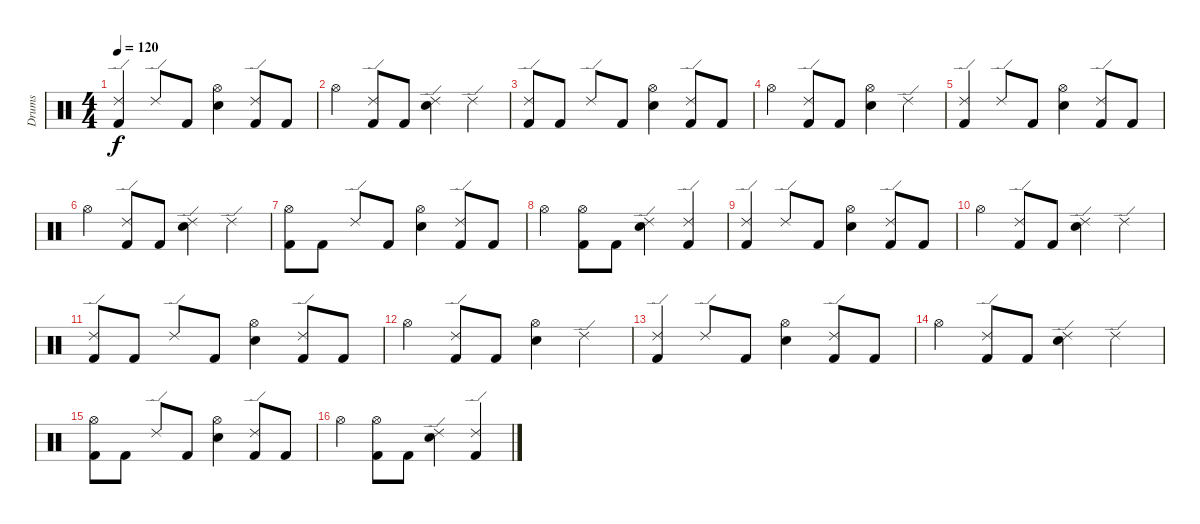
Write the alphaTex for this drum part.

\track ("Drums" "Drums") {instrument percussion}
\staff {score}
\articulation defaults
\ts (4 4)
\tempo 120
\clef neutral
\ks c
("Ride (edge) 2" "Kick (hit) 2").4{dy f} "Ride (edge) 2".8 "Kick (hit) 2".8 ("Hi-Hat (open)" "Snare (hit) 2").4 ("Ride (edge) 2" "Kick (hit) 2").8 "Kick (hit) 2".8 |
"Hi-Hat (open)".4 ("Ride (edge) 2" "Kick (hit) 2").8 "Kick (hit) 2".8 ("Ride (edge) 2" "Snare (hit) 2").4 "Ride (edge) 2".4 |
("Ride (edge) 2" "Kick (hit) 2").8 "Kick (hit) 2".8 "Ride (edge) 2".8 "Kick (hit) 2".8 ("Hi-Hat (open)" "Snare (hit) 2").4 ("Ride (edge) 2" "Kick (hit) 2").8 "Kick (hit) 2".8 |
"Hi-Hat (open)".4 ("Ride (edge) 2" "Kick (hit) 2").8 "Kick (hit) 2".8 ("Hi-Hat (open)" "Snare (hit) 2").4 "Ride (edge) 2".4 |
("Ride (edge) 2" "Kick (hit) 2").4 "Ride (edge) 2".8 "Kick (hit) 2".8 ("Hi-Hat (open)" "Snare (hit) 2").4 ("Ride (edge) 2" "Kick (hit) 2").8 "Kick (hit) 2".8 |
"Hi-Hat (open)".4 ("Ride (edge) 2" "Kick (hit) 2").8 "Kick (hit) 2".8 ("Ride (edge) 2" "Snare (hit) 2").4 "Ride (edge) 2".4 |
("Hi-Hat (open)" "Kick (hit) 2").8 "Kick (hit) 2".8 "Ride (edge) 2".8 "Kick (hit) 2".8 ("Hi-Hat (open)" "Snare (hit) 2").4 ("Ride (edge) 2" "Kick (hit) 2").8 "Kick (hit) 2".8 |
"Hi-Hat (open)".4 ("Hi-Hat (open)" "Kick (hit) 2").8 "Kick (hit) 2".8 ("Ride (edge) 2" "Snare (hit) 2").4 ("Ride (edge) 2" "Kick (hit) 2").4 |
("Ride (edge) 2" "Kick (hit) 2").4 "Ride (edge) 2".8 "Kick (hit) 2".8 ("Hi-Hat (open)" "Snare (hit) 2").4 ("Ride (edge) 2" "Kick (hit) 2").8 "Kick (hit) 2".8 |
"Hi-Hat (open)".4 ("Ride (edge) 2" "Kick (hit) 2").8 "Kick (hit) 2".8 ("Ride (edge) 2" "Snare (hit) 2").4 "Ride (edge) 2".4 |
("Ride (edge) 2" "Kick (hit) 2").8 "Kick (hit) 2".8 "Ride (edge) 2".8 "Kick (hit) 2".8 ("Hi-Hat (open)" "Snare (hit) 2").4 ("Ride (edge) 2" "Kick (hit) 2").8 "Kick (hit) 2".8 |
"Hi-Hat (open)".4 ("Ride (edge) 2" "Kick (hit) 2").8 "Kick (hit) 2".8 ("Hi-Hat (open)" "Snare (hit) 2").4 "Ride (edge) 2".4 |
("Ride (edge) 2" "Kick (hit) 2").4 "Ride (edge) 2".8 "Kick (hit) 2".8 ("Hi-Hat (open)" "Snare (hit) 2").4 ("Ride (edge) 2" "Kick (hit) 2").8 "Kick (hit) 2".8 |
"Hi-Hat (open)".4 ("Ride (edge) 2" "Kick (hit) 2").8 "Kick (hit) 2".8 ("Ride (edge) 2" "Snare (hit) 2").4 "Ride (edge) 2".4 |
("Hi-Hat (open)" "Kick (hit) 2").8 "Kick (hit) 2".8 "Ride (edge) 2".8 "Kick (hit) 2".8 ("Hi-Hat (open)" "Snare (hit) 2").4 ("Ride (edge) 2" "Kick (hit) 2").8 "Kick (hit) 2".8 |
"Hi-Hat (open)".4 ("Hi-Hat (open)" "Kick (hit) 2").8 "Kick (hit) 2".8 ("Ride (edge) 2" "Snare (hit) 2").4 ("Ride (edge) 2" "Kick (hit) 2").4
